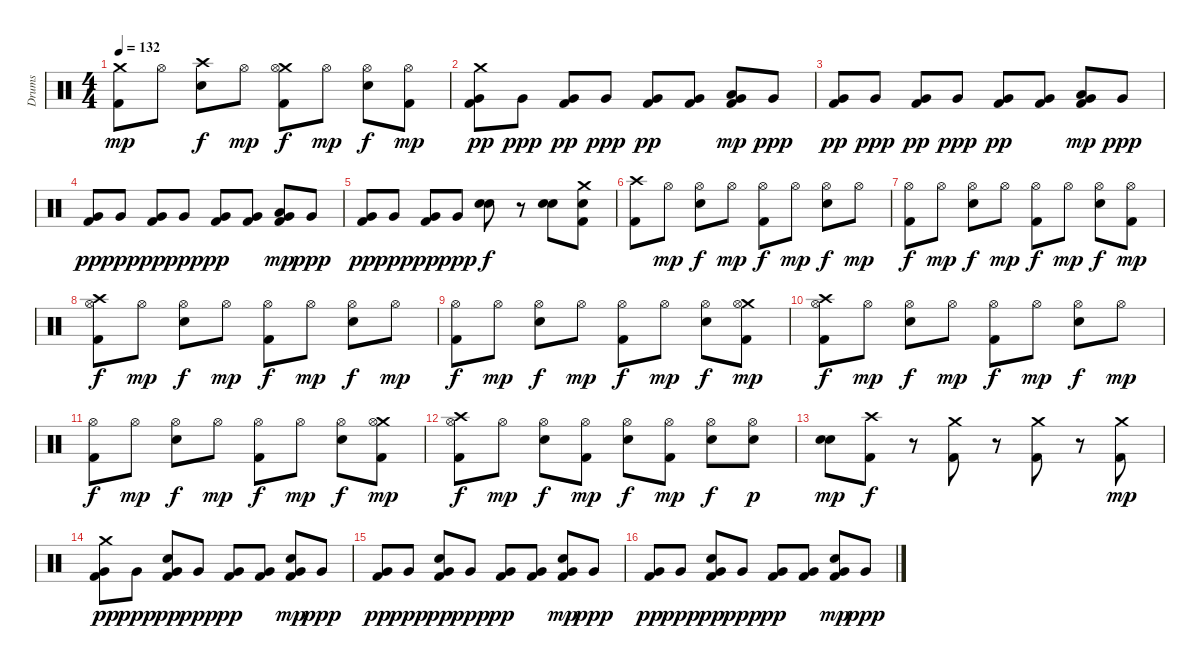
\track ("Drums" "Drums") {instrument percussion}
\staff {score}
\articulation defaults
\ts (4 4)
\tempo 132
\clef neutral
\ks c
("Crash medium (hit)" "Kick (hit) 2").8{dy mp} "Hi-Hat (open)".8 ("Crash high (hit)" "Electric Snare (hit)").8{dy f} "Hi-Hat (open)".8{dy mp} ("Crash medium (hit)" "Hi-Hat (open)" "Kick (hit) 2").8{dy f} "Hi-Hat (open)".8{dy mp} ("Hi-Hat (open)" "Electric Snare (hit)").8{dy f} ("Hi-Hat (open)" "Kick (hit) 2").8{dy mp} |
("Crash medium (hit)" "Kick (hit) 2" "Very Low Tom (hit)").8{dy pp} "Very Low Tom (hit)".8{dy ppp} ("Very Low Tom (hit)" "Kick (hit) 2").8{dy pp} "Very Low Tom (hit)".8{dy ppp} ("Very Low Tom (hit)" "Kick (hit) 2").8{dy pp} ("Kick (hit) 2" "Very Low Tom (hit)").8 ("Low Floor Tom (hit)" "Very Low Tom (hit)" "Kick (hit) 2").8{dy mp} "Very Low Tom (hit)".8{dy ppp} |
("Very Low Tom (hit)" "Kick (hit) 2").8{dy pp} "Very Low Tom (hit)".8{dy ppp} ("Very Low Tom (hit)" "Kick (hit) 2").8{dy pp} "Very Low Tom (hit)".8{dy ppp} ("Very Low Tom (hit)" "Kick (hit) 2").8{dy pp} ("Kick (hit) 2" "Very Low Tom (hit)").8 ("Low Floor Tom (hit)" "Very Low Tom (hit)" "Kick (hit) 2").8{dy mp} "Very Low Tom (hit)".8{dy ppp} |
("Very Low Tom (hit)" "Kick (hit) 2").8{dy pp} "Very Low Tom (hit)".8{dy ppp} ("Very Low Tom (hit)" "Kick (hit) 2").8{dy pp} "Very Low Tom (hit)".8{dy ppp} ("Very Low Tom (hit)" "Kick (hit) 2").8{dy pp} ("Kick (hit) 2" "Very Low Tom (hit)").8 ("Low Floor Tom (hit)" "Very Low Tom (hit)" "Kick (hit) 2").8{dy mp} "Very Low Tom (hit)".8{dy ppp} |
("Very Low Tom (hit)" "Kick (hit) 2").8{dy pp} "Very Low Tom (hit)".8{dy ppp} ("Very Low Tom (hit)" "Kick (hit) 2").8{dy pp} "Very Low Tom (hit)".8{dy ppp} ("Electric Snare (hit)" "Electric Snare (hit)").8{dy f} r.8 ("Electric Snare (hit)" "Electric Snare (hit)").8 ("Crash medium (hit)" "Electric Snare (hit)" "Kick (hit) 2").8 |
("Crash high (hit)" "Kick (hit) 2").8 "Hi-Hat (open)".8{dy mp} ("Hi-Hat (open)" "Electric Snare (hit)").8{dy f} "Hi-Hat (open)".8{dy mp} ("Hi-Hat (open)" "Kick (hit) 2").8{dy f} "Hi-Hat (open)".8{dy mp} ("Hi-Hat (open)" "Electric Snare (hit)").8{dy f} "Hi-Hat (open)".8{dy mp} |
("Hi-Hat (open)" "Kick (hit) 2").8{dy f} "Hi-Hat (open)".8{dy mp} ("Hi-Hat (open)" "Electric Snare (hit)").8{dy f} "Hi-Hat (open)".8{dy mp} ("Hi-Hat (open)" "Kick (hit) 2").8{dy f} "Hi-Hat (open)".8{dy mp} ("Hi-Hat (open)" "Electric Snare (hit)").8{dy f} ("Hi-Hat (open)" "Kick (hit) 2").8{dy mp} |
("Crash high (hit)" "Hi-Hat (open)" "Kick (hit) 2").8{dy f} "Hi-Hat (open)".8{dy mp} ("Hi-Hat (open)" "Electric Snare (hit)").8{dy f} "Hi-Hat (open)".8{dy mp} ("Hi-Hat (open)" "Kick (hit) 2").8{dy f} "Hi-Hat (open)".8{dy mp} ("Hi-Hat (open)" "Electric Snare (hit)").8{dy f} "Hi-Hat (open)".8{dy mp} |
("Hi-Hat (open)" "Kick (hit) 2").8{dy f} "Hi-Hat (open)".8{dy mp} ("Hi-Hat (open)" "Electric Snare (hit)").8{dy f} "Hi-Hat (open)".8{dy mp} ("Hi-Hat (open)" "Kick (hit) 2").8{dy f} "Hi-Hat (open)".8{dy mp} ("Hi-Hat (open)" "Electric Snare (hit)").8{dy f} ("Crash medium (hit)" "Kick (hit) 2" "Hi-Hat (open)").8{dy mp} |
("Crash high (hit)" "Hi-Hat (open)" "Kick (hit) 2").8{dy f} "Hi-Hat (open)".8{dy mp} ("Hi-Hat (open)" "Electric Snare (hit)").8{dy f} "Hi-Hat (open)".8{dy mp} ("Hi-Hat (open)" "Kick (hit) 2").8{dy f} "Hi-Hat (open)".8{dy mp} ("Hi-Hat (open)" "Electric Snare (hit)").8{dy f} "Hi-Hat (open)".8{dy mp} |
("Hi-Hat (open)" "Kick (hit) 2").8{dy f} "Hi-Hat (open)".8{dy mp} ("Hi-Hat (open)" "Electric Snare (hit)").8{dy f} "Hi-Hat (open)".8{dy mp} ("Hi-Hat (open)" "Kick (hit) 2").8{dy f} "Hi-Hat (open)".8{dy mp} ("Hi-Hat (open)" "Electric Snare (hit)").8{dy f} ("Crash medium (hit)" "Kick (hit) 2" "Hi-Hat (open)").8{dy mp} |
("Crash high (hit)" "Hi-Hat (open)" "Kick (hit) 2").8{dy f} "Hi-Hat (open)".8{dy mp} ("Hi-Hat (open)" "Electric Snare (hit)").8{dy f} ("Kick (hit) 2" "Hi-Hat (open)").8{dy mp} ("Electric Snare (hit)" "Hi-Hat (open)").8{dy f} ("Kick (hit) 2" "Hi-Hat (open)").8{dy mp} ("Hi-Hat (open)" "Electric Snare (hit)").8{dy f} ("Hi-Hat (open)" "Electric Snare (hit)").8{dy p} |
("Electric Snare (hit)" "Electric Snare (hit)").8{dy mp} ("Crash high (hit)" "Kick (hit) 2").8{dy f} r.8 ("Crash medium (hit)" "Kick (hit) 2").8 r.8 ("Crash medium (hit)" "Kick (hit) 2").8 r.8 ("Crash medium (hit)" "Kick (hit) 2").8{dy mp} |
("Crash medium (hit)" "Kick (hit) 2" "Very Low Tom (hit)").8{dy pp} "Very Low Tom (hit)".8{dy ppp} ("Electric Snare (hit)" "Very Low Tom (hit)" "Kick (hit) 2").8{dy pp} "Very Low Tom (hit)".8{dy ppp} ("Very Low Tom (hit)" "Kick (hit) 2").8{dy pp} ("Kick (hit) 2" "Very Low Tom (hit)").8 ("Electric Snare (hit)" "Very Low Tom (hit)" "Kick (hit) 2").8{dy mp} "Very Low Tom (hit)".8{dy ppp} |
("Very Low Tom (hit)" "Kick (hit) 2").8{dy pp} "Very Low Tom (hit)".8{dy ppp} ("Electric Snare (hit)" "Very Low Tom (hit)" "Kick (hit) 2").8{dy pp} "Very Low Tom (hit)".8{dy ppp} ("Very Low Tom (hit)" "Kick (hit) 2").8{dy pp} ("Kick (hit) 2" "Very Low Tom (hit)").8 ("Electric Snare (hit)" "Very Low Tom (hit)" "Kick (hit) 2").8{dy mp} "Very Low Tom (hit)".8{dy ppp} |
("Very Low Tom (hit)" "Kick (hit) 2").8{dy pp} "Very Low Tom (hit)".8{dy ppp} ("Electric Snare (hit)" "Very Low Tom (hit)" "Kick (hit) 2").8{dy pp} "Very Low Tom (hit)".8{dy ppp} ("Very Low Tom (hit)" "Kick (hit) 2").8{dy pp} ("Kick (hit) 2" "Very Low Tom (hit)").8 ("Electric Snare (hit)" "Very Low Tom (hit)" "Kick (hit) 2").8{dy mp} "Very Low Tom (hit)".8{dy ppp}
